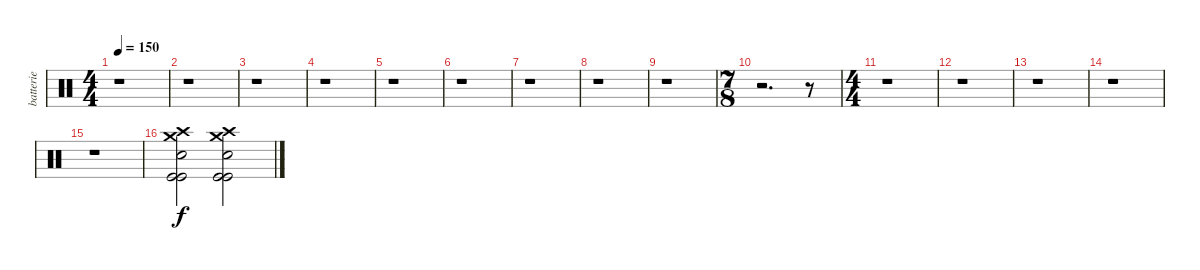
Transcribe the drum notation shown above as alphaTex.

\track ("batterie" "batterie") {instrument percussion}
\staff {score}
\articulation defaults
\ts (4 4)
\tempo 150
\clef neutral
\ks c
r.1{dy f} |
r.1 |
r.1 |
r.1 |
r.1 |
r.1 |
r.1 |
r.1 |
r.1 |
\ts (7 8)
r.2{d} r.8 |
\ts (4 4)
r.1 |
r.1 |
r.1 |
r.1 |
r.1 |
("Crash high (hit)" "Crash medium (hit)" "Kick (hit)" "Snare (hit) 2" "Kick (hit)").2 ("Crash high (hit)" "Crash medium (hit)" "Kick (hit)" "Snare (hit) 2" "Kick (hit)").2
